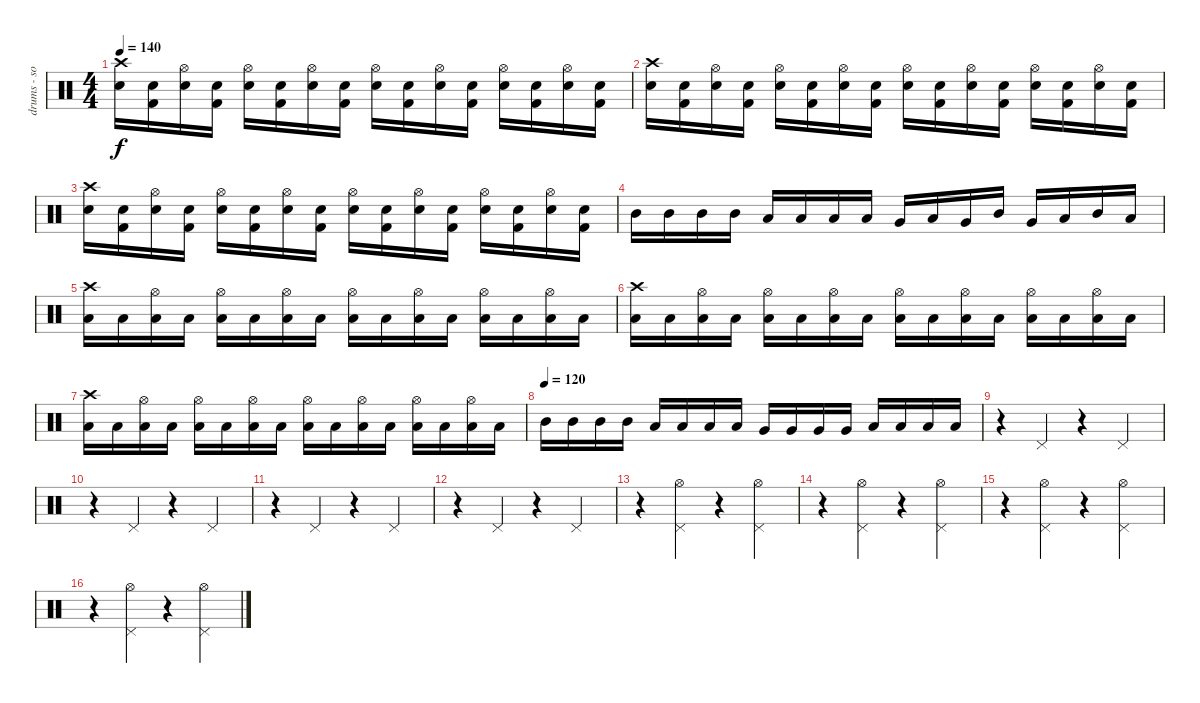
\track ("drums - someone maybe miki" "drums - so") {instrument percussion}
\staff {score}
\articulation defaults
\ts (4 4)
\tempo 140
\clef neutral
\ks c
("Electric Snare (hit)" "Crash high (hit)").16{dy f} ("Kick (hit) 2" "Electric Snare (hit)").16 ("Electric Snare (hit)" "Hi-Hat (open)").16 ("Kick (hit) 2" "Electric Snare (hit)").16 ("Electric Snare (hit)" "Hi-Hat (open)").16 ("Kick (hit) 2" "Electric Snare (hit)").16 ("Electric Snare (hit)" "Hi-Hat (open)").16 ("Kick (hit) 2" "Electric Snare (hit)").16 ("Electric Snare (hit)" "Hi-Hat (open)").16 ("Kick (hit) 2" "Electric Snare (hit)").16 ("Electric Snare (hit)" "Hi-Hat (open)").16 ("Kick (hit) 2" "Electric Snare (hit)").16 ("Electric Snare (hit)" "Hi-Hat (open)").16 ("Kick (hit) 2" "Electric Snare (hit)").16 ("Electric Snare (hit)" "Hi-Hat (open)").16 ("Kick (hit) 2" "Electric Snare (hit)").16 |
("Electric Snare (hit)" "Crash high (hit)").16 ("Kick (hit) 2" "Electric Snare (hit)").16 ("Electric Snare (hit)" "Hi-Hat (open)").16 ("Kick (hit) 2" "Electric Snare (hit)").16 ("Electric Snare (hit)" "Hi-Hat (open)").16 ("Kick (hit) 2" "Electric Snare (hit)").16 ("Electric Snare (hit)" "Hi-Hat (open)").16 ("Kick (hit) 2" "Electric Snare (hit)").16 ("Electric Snare (hit)" "Hi-Hat (open)").16 ("Kick (hit) 2" "Electric Snare (hit)").16 ("Electric Snare (hit)" "Hi-Hat (open)").16 ("Kick (hit) 2" "Electric Snare (hit)").16 ("Electric Snare (hit)" "Hi-Hat (open)").16 ("Kick (hit) 2" "Electric Snare (hit)").16 ("Electric Snare (hit)" "Hi-Hat (open)").16 ("Kick (hit) 2" "Electric Snare (hit)").16 |
("Electric Snare (hit)" "Crash high (hit)").16 ("Kick (hit) 2" "Electric Snare (hit)").16 ("Electric Snare (hit)" "Hi-Hat (open)").16 ("Kick (hit) 2" "Electric Snare (hit)").16 ("Electric Snare (hit)" "Hi-Hat (open)").16 ("Kick (hit) 2" "Electric Snare (hit)").16 ("Electric Snare (hit)" "Hi-Hat (open)").16 ("Kick (hit) 2" "Electric Snare (hit)").16 ("Electric Snare (hit)" "Hi-Hat (open)").16 ("Kick (hit) 2" "Electric Snare (hit)").16 ("Electric Snare (hit)" "Hi-Hat (open)").16 ("Kick (hit) 2" "Electric Snare (hit)").16 ("Electric Snare (hit)" "Hi-Hat (open)").16 ("Kick (hit) 2" "Electric Snare (hit)").16 ("Electric Snare (hit)" "Hi-Hat (open)").16 ("Kick (hit) 2" "Electric Snare (hit)").16 |
"Mid Tom (hit)".16 "Mid Tom (hit)".16 "Mid Tom (hit)".16 "Mid Tom (hit)".16 "Low Tom (hit)".16 "Low Tom (hit)".16 "Low Tom (hit)".16 "Low Tom (hit)".16 "Very Low Tom (hit)".16 "Low Tom (hit)".16 "Very Low Tom (hit)".16 "Mid Tom (hit)".16 "Very Low Tom (hit)".16 "Low Tom (hit)".16 "Mid Tom (hit)".16 "Low Tom (hit)".16 |
("Crash high (hit)" "Low Floor Tom (hit)").16 "Low Floor Tom (hit)".16 ("Hi-Hat (open)" "Low Floor Tom (hit)").16 "Low Floor Tom (hit)".16 ("Hi-Hat (open)" "Low Tom (hit)").16 "Low Floor Tom (hit)".16 ("Hi-Hat (open)" "Low Floor Tom (hit)").16 "Low Floor Tom (hit)".16 ("Hi-Hat (open)" "Low Floor Tom (hit)").16 "Low Floor Tom (hit)".16 ("Hi-Hat (open)" "Low Floor Tom (hit)").16 "Low Floor Tom (hit)".16 ("Hi-Hat (open)" "Low Tom (hit)").16 "Low Floor Tom (hit)".16 ("Hi-Hat (open)" "Low Floor Tom (hit)").16 "Low Floor Tom (hit)".16 |
("Crash high (hit)" "Low Floor Tom (hit)").16 "Low Floor Tom (hit)".16 ("Hi-Hat (open)" "Low Floor Tom (hit)").16 "Low Floor Tom (hit)".16 ("Hi-Hat (open)" "Low Tom (hit)").16 "Low Floor Tom (hit)".16 ("Hi-Hat (open)" "Low Floor Tom (hit)").16 "Low Floor Tom (hit)".16 ("Hi-Hat (open)" "Low Floor Tom (hit)").16 "Low Floor Tom (hit)".16 ("Hi-Hat (open)" "Low Floor Tom (hit)").16 "Low Floor Tom (hit)".16 ("Hi-Hat (open)" "Low Tom (hit)").16 "Low Floor Tom (hit)".16 ("Hi-Hat (open)" "Low Floor Tom (hit)").16 "Low Floor Tom (hit)".16 |
("Crash high (hit)" "Low Floor Tom (hit)").16 "Low Floor Tom (hit)".16 ("Hi-Hat (open)" "Low Floor Tom (hit)").16 "Low Floor Tom (hit)".16 ("Hi-Hat (open)" "Low Tom (hit)").16 "Low Floor Tom (hit)".16 ("Hi-Hat (open)" "Low Floor Tom (hit)").16 "Low Floor Tom (hit)".16 ("Hi-Hat (open)" "Low Floor Tom (hit)").16 "Low Floor Tom (hit)".16 ("Hi-Hat (open)" "Low Floor Tom (hit)").16 "Low Floor Tom (hit)".16 ("Hi-Hat (open)" "Low Tom (hit)").16 "Low Floor Tom (hit)".16 ("Hi-Hat (open)" "Low Floor Tom (hit)").16 "Low Floor Tom (hit)".16 |
\tempo (120)
"Mid Tom (hit)".16 "Mid Tom (hit)".16 "Mid Tom (hit)".16 "Mid Tom (hit)".16 "Low Tom (hit)".16 "Low Tom (hit)".16 "Low Tom (hit)".16 "Low Tom (hit)".16 "Very Low Tom (hit)".16 "Very Low Tom (hit)".16 "Very Low Tom (hit)".16 "Very Low Tom (hit)".16 "Low Floor Tom (hit)".16 "Low Floor Tom (hit)".16 "Low Floor Tom (hit)".16 "Low Floor Tom (hit)".16 |
r.4 "Pedal Hi-Hat (hit)".4 r.4 "Pedal Hi-Hat (hit)".4 |
r.4 "Pedal Hi-Hat (hit)".4 r.4 "Pedal Hi-Hat (hit)".4 |
r.4 "Pedal Hi-Hat (hit)".4 r.4 "Pedal Hi-Hat (hit)".4 |
r.4 "Pedal Hi-Hat (hit)".4 r.4 "Pedal Hi-Hat (hit)".4 |
r.4 ("Pedal Hi-Hat (hit)" "Hi-Hat (open)").4 r.4 ("Pedal Hi-Hat (hit)" "Hi-Hat (open)").4 |
r.4 ("Pedal Hi-Hat (hit)" "Hi-Hat (open)").4 r.4 ("Pedal Hi-Hat (hit)" "Hi-Hat (open)").4 |
r.4 ("Pedal Hi-Hat (hit)" "Hi-Hat (open)").4 r.4 ("Pedal Hi-Hat (hit)" "Hi-Hat (open)").4 |
r.4 ("Pedal Hi-Hat (hit)" "Hi-Hat (open)").4 r.4 ("Pedal Hi-Hat (hit)" "Hi-Hat (open)").4
